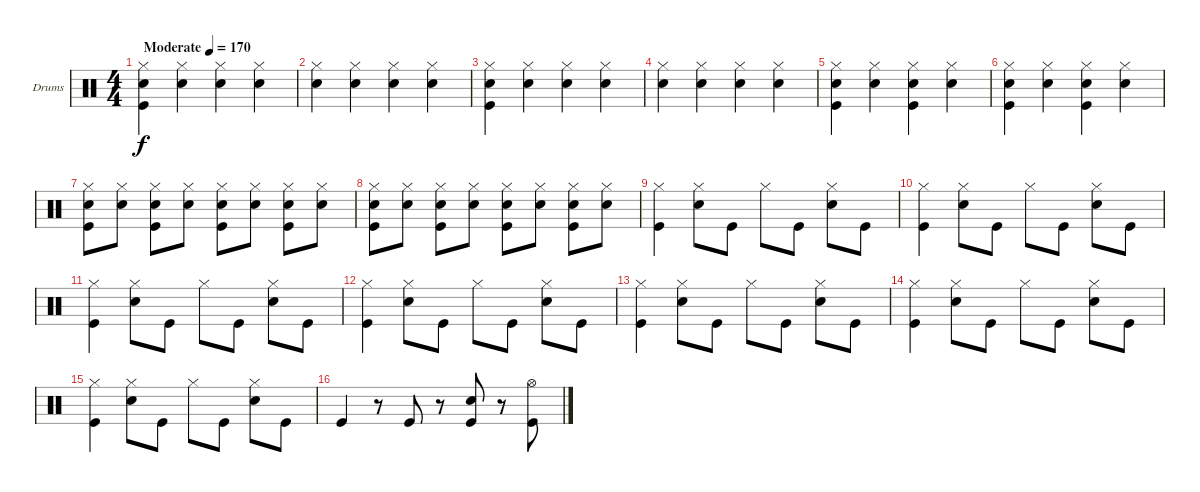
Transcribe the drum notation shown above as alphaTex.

\bracketExtendMode groupsimilarinstruments
\firstSystemTrackNameOrientation horizontal
\otherSystemsTrackNameOrientation horizontal
\track ("Drumkit" "Drums") {instrument percussion}
\staff {score}
\articulation defaults
\ts (4 4)
\beaming (8 2 2 2 2)
\tempo (170 "Moderate")
\clef neutral
\ks c
("Hi-Hat (closed)" "Snare (hit) 2" "Kick (hit)").4{dy f} ("Hi-Hat (closed)" "Snare (hit) 2").4 ("Hi-Hat (closed)" "Snare (hit) 2").4 ("Hi-Hat (closed)" "Snare (hit) 2").4 |
("Hi-Hat (closed)" "Snare (hit) 2").4 ("Hi-Hat (closed)" "Snare (hit) 2").4 ("Hi-Hat (closed)" "Snare (hit) 2").4 ("Hi-Hat (closed)" "Snare (hit) 2").4 |
("Hi-Hat (closed)" "Snare (hit) 2" "Kick (hit)").4 ("Hi-Hat (closed)" "Snare (hit) 2").4 ("Hi-Hat (closed)" "Snare (hit) 2").4 ("Hi-Hat (closed)" "Snare (hit) 2").4 |
("Hi-Hat (closed)" "Snare (hit) 2").4 ("Hi-Hat (closed)" "Snare (hit) 2").4 ("Hi-Hat (closed)" "Snare (hit) 2").4 ("Hi-Hat (closed)" "Snare (hit) 2").4 |
("Hi-Hat (closed)" "Snare (hit) 2" "Kick (hit)").4 ("Hi-Hat (closed)" "Snare (hit) 2").4 ("Hi-Hat (closed)" "Snare (hit) 2" "Kick (hit)").4 ("Hi-Hat (closed)" "Snare (hit) 2").4 |
("Hi-Hat (closed)" "Snare (hit) 2" "Kick (hit)").4 ("Hi-Hat (closed)" "Snare (hit) 2").4 ("Hi-Hat (closed)" "Snare (hit) 2" "Kick (hit)").4 ("Hi-Hat (closed)" "Snare (hit) 2").4 |
("Hi-Hat (closed)" "Snare (hit) 2" "Kick (hit)").8 ("Hi-Hat (closed)" "Snare (hit) 2").8 ("Hi-Hat (closed)" "Snare (hit) 2" "Kick (hit)").8 ("Hi-Hat (closed)" "Snare (hit) 2").8 ("Hi-Hat (closed)" "Snare (hit) 2" "Kick (hit)").8 ("Hi-Hat (closed)" "Snare (hit) 2").8 ("Hi-Hat (closed)" "Snare (hit) 2" "Kick (hit)").8 ("Hi-Hat (closed)" "Snare (hit) 2").8 |
("Hi-Hat (closed)" "Snare (hit) 2" "Kick (hit)").8 ("Hi-Hat (closed)" "Snare (hit) 2").8 ("Hi-Hat (closed)" "Snare (hit) 2" "Kick (hit)").8 ("Hi-Hat (closed)" "Snare (hit) 2").8 ("Hi-Hat (closed)" "Snare (hit) 2" "Kick (hit)").8 ("Hi-Hat (closed)" "Snare (hit) 2").8 ("Hi-Hat (closed)" "Snare (hit) 2" "Kick (hit)").8 ("Hi-Hat (closed)" "Snare (hit) 2").8 |
("Hi-Hat (closed)" "Kick (hit)").4 ("Hi-Hat (closed)" "Snare (hit) 2").8 "Kick (hit)".8 "Hi-Hat (closed)".8 "Kick (hit)".8 ("Hi-Hat (closed)" "Snare (hit) 2").8 "Kick (hit)".8 |
("Hi-Hat (closed)" "Kick (hit)").4 ("Hi-Hat (closed)" "Snare (hit) 2").8 "Kick (hit)".8 "Hi-Hat (closed)".8 "Kick (hit)".8 ("Hi-Hat (closed)" "Snare (hit) 2").8 "Kick (hit)".8 |
("Hi-Hat (closed)" "Kick (hit)").4 ("Hi-Hat (closed)" "Snare (hit) 2").8 "Kick (hit)".8 "Hi-Hat (closed)".8 "Kick (hit)".8 ("Hi-Hat (closed)" "Snare (hit) 2").8 "Kick (hit)".8 |
("Hi-Hat (closed)" "Kick (hit)").4 ("Hi-Hat (closed)" "Snare (hit) 2").8 "Kick (hit)".8 "Hi-Hat (closed)".8 "Kick (hit)".8 ("Hi-Hat (closed)" "Snare (hit) 2").8 "Kick (hit)".8 |
("Hi-Hat (closed)" "Kick (hit)").4 ("Hi-Hat (closed)" "Snare (hit) 2").8 "Kick (hit)".8 "Hi-Hat (closed)".8 "Kick (hit)".8 ("Hi-Hat (closed)" "Snare (hit) 2").8 "Kick (hit)".8 |
("Hi-Hat (closed)" "Kick (hit)").4 ("Hi-Hat (closed)" "Snare (hit) 2").8 "Kick (hit)".8 "Hi-Hat (closed)".8 "Kick (hit)".8 ("Hi-Hat (closed)" "Snare (hit) 2").8 "Kick (hit)".8 |
("Hi-Hat (closed)" "Kick (hit)").4 ("Hi-Hat (closed)" "Snare (hit) 2").8 "Kick (hit)".8 "Hi-Hat (closed)".8 "Kick (hit)".8 ("Hi-Hat (closed)" "Snare (hit) 2").8 "Kick (hit)".8 |
"Kick (hit)".4 r.8 "Kick (hit)".8 r.8 ("Snare (hit) 2" "Kick (hit)").8 r.8 ("Hi-Hat (open)" "Kick (hit)").8
